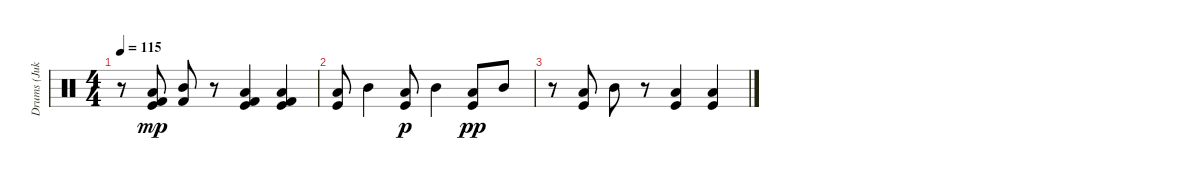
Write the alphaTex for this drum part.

\track ("Drums (Jukka)" "Drums (Juk") {instrument percussion}
\staff {score}
\articulation defaults
\ts (4 4)
\tempo 115
\clef neutral
\ks c
r.8{dy mf} ("Kick (hit)" "Low Tom (hit)" "Kick (hit) 2").8{dy mp} ("Mid Tom (hit)" "Kick (hit) 2").8 r.8 ("Kick (hit)" "Low Tom (hit)" "Kick (hit) 2").4 ("Kick (hit)" "Low Tom (hit)" "Kick (hit) 2").4 |
("Kick (hit)" "Low Tom (hit)").8 "Mid Tom (hit)".4 ("Kick (hit)" "Low Tom (hit)").8{dy p} "Mid Tom (hit)".4 ("Kick (hit)" "Low Tom (hit)").8{dy pp} "Mid Tom (hit)".8 |
r.8 ("Kick (hit)" "Low Tom (hit)").8 "Mid Tom (hit)".8 r.8 ("Kick (hit)" "Low Tom (hit)").4 ("Kick (hit)" "Low Tom (hit)").4
